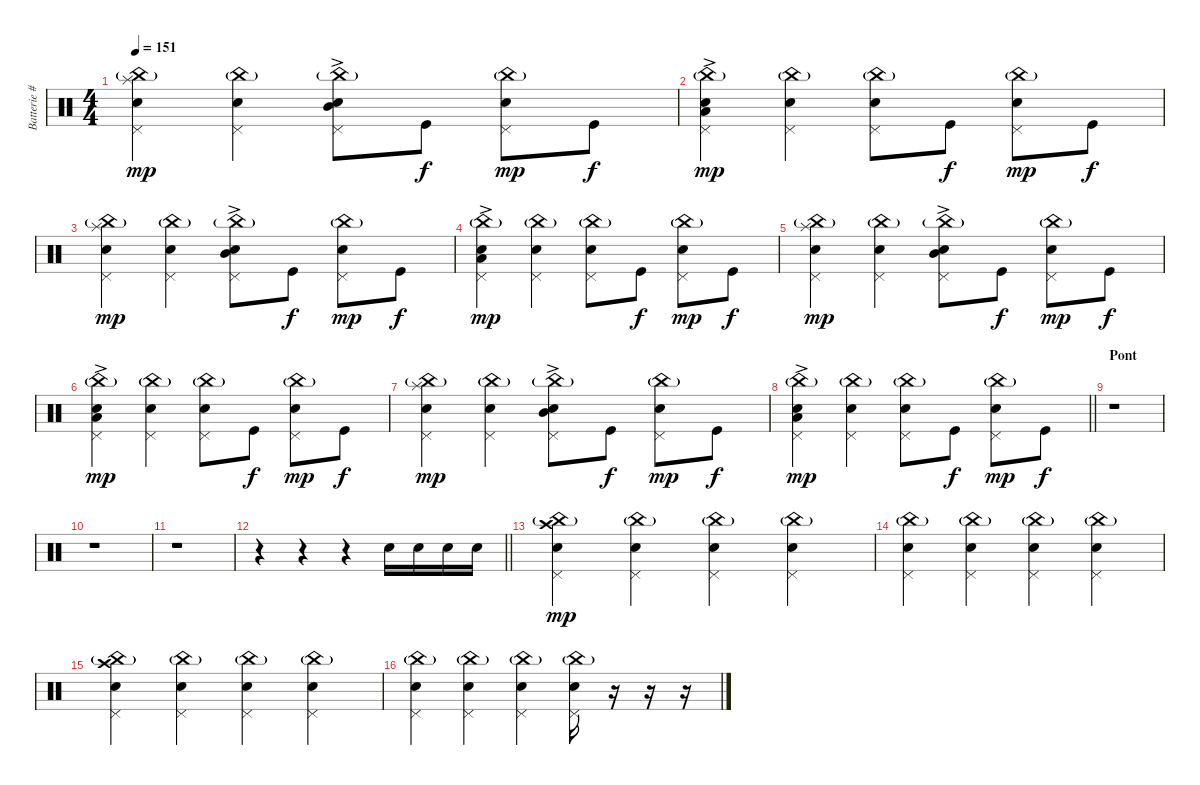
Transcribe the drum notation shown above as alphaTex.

\track ("Batterie # S.Hewitt" "Batterie #") {instrument percussion}
\staff {score}
\articulation defaults
\ts (4 4)
\tempo 151
\clef neutral
\ks c
("Splash (hit)" "China (hit)"{g} "Electric Snare (hit)" "Pedal Hi-Hat (hit)").4{dy mp} ("China (hit)"{g} "Electric Snare (hit)" "Pedal Hi-Hat (hit)").4 ("Mid Tom (hit)"{ac} "China (hit)"{g} "Electric Snare (hit)" "Pedal Hi-Hat (hit)").8 "Kick (hit)".8{dy f} ("China (hit)"{g} "Electric Snare (hit)" "Pedal Hi-Hat (hit)").8{dy mp} "Kick (hit)".8{dy f} |
("Low Tom (hit)"{ac} "China (hit)"{g} "Electric Snare (hit)" "Pedal Hi-Hat (hit)").4{dy mp} ("China (hit)"{g} "Electric Snare (hit)" "Pedal Hi-Hat (hit)").4 ("China (hit)"{g} "Electric Snare (hit)" "Pedal Hi-Hat (hit)").8 "Kick (hit)".8{dy f} ("China (hit)"{g} "Electric Snare (hit)" "Pedal Hi-Hat (hit)").8{dy mp} "Kick (hit)".8{dy f} |
("Splash (hit)" "China (hit)"{g} "Electric Snare (hit)" "Pedal Hi-Hat (hit)").4{dy mp} ("China (hit)"{g} "Electric Snare (hit)" "Pedal Hi-Hat (hit)").4 ("Mid Tom (hit)"{ac} "China (hit)"{g} "Electric Snare (hit)" "Pedal Hi-Hat (hit)").8 "Kick (hit)".8{dy f} ("China (hit)"{g} "Electric Snare (hit)" "Pedal Hi-Hat (hit)").8{dy mp} "Kick (hit)".8{dy f} |
("Low Tom (hit)"{ac} "China (hit)"{g} "Electric Snare (hit)" "Pedal Hi-Hat (hit)").4{dy mp} ("China (hit)"{g} "Electric Snare (hit)" "Pedal Hi-Hat (hit)").4 ("China (hit)"{g} "Electric Snare (hit)" "Pedal Hi-Hat (hit)").8 "Kick (hit)".8{dy f} ("China (hit)"{g} "Electric Snare (hit)" "Pedal Hi-Hat (hit)").8{dy mp} "Kick (hit)".8{dy f} |
("Splash (hit)" "China (hit)"{g} "Electric Snare (hit)" "Pedal Hi-Hat (hit)").4{dy mp} ("China (hit)"{g} "Electric Snare (hit)" "Pedal Hi-Hat (hit)").4 ("Mid Tom (hit)"{ac} "China (hit)"{g} "Electric Snare (hit)" "Pedal Hi-Hat (hit)").8 "Kick (hit)".8{dy f} ("China (hit)"{g} "Electric Snare (hit)" "Pedal Hi-Hat (hit)").8{dy mp} "Kick (hit)".8{dy f} |
("Low Tom (hit)"{ac} "China (hit)"{g} "Electric Snare (hit)" "Pedal Hi-Hat (hit)").4{dy mp} ("China (hit)"{g} "Electric Snare (hit)" "Pedal Hi-Hat (hit)").4 ("China (hit)"{g} "Electric Snare (hit)" "Pedal Hi-Hat (hit)").8 "Kick (hit)".8{dy f} ("China (hit)"{g} "Electric Snare (hit)" "Pedal Hi-Hat (hit)").8{dy mp} "Kick (hit)".8{dy f} |
("Splash (hit)" "China (hit)"{g} "Electric Snare (hit)" "Pedal Hi-Hat (hit)").4{dy mp} ("China (hit)"{g} "Electric Snare (hit)" "Pedal Hi-Hat (hit)").4 ("Mid Tom (hit)"{ac} "China (hit)"{g} "Electric Snare (hit)" "Pedal Hi-Hat (hit)").8 "Kick (hit)".8{dy f} ("China (hit)"{g} "Electric Snare (hit)" "Pedal Hi-Hat (hit)").8{dy mp} "Kick (hit)".8{dy f} |
\barLineRight lightlight
("Low Tom (hit)"{ac} "China (hit)"{g} "Electric Snare (hit)" "Pedal Hi-Hat (hit)").4{dy mp} ("China (hit)"{g} "Electric Snare (hit)" "Pedal Hi-Hat (hit)").4 ("China (hit)"{g} "Electric Snare (hit)" "Pedal Hi-Hat (hit)").8 "Kick (hit)".8{dy f} ("China (hit)"{g} "Electric Snare (hit)" "Pedal Hi-Hat (hit)").8{dy mp} "Kick (hit)".8{dy f} |
\section ("" "Pont")
r.1 |
r.1 |
r.1 |
\barLineRight lightlight
r.4 r.4 r.4 "Electric Snare (hit)".16 "Electric Snare (hit)".16 "Electric Snare (hit)".16 "Electric Snare (hit)".16 |
("Crash high (hit)" "China (hit)"{g} "Electric Snare (hit)" "Pedal Hi-Hat (hit)").4{dy mp} ("China (hit)"{g} "Electric Snare (hit)" "Pedal Hi-Hat (hit)").4 ("China (hit)"{g} "Electric Snare (hit)" "Pedal Hi-Hat (hit)").4 ("China (hit)"{g} "Electric Snare (hit)" "Pedal Hi-Hat (hit)").4 |
("China (hit)"{g} "Electric Snare (hit)" "Pedal Hi-Hat (hit)").4 ("China (hit)"{g} "Electric Snare (hit)" "Pedal Hi-Hat (hit)").4 ("China (hit)"{g} "Electric Snare (hit)" "Pedal Hi-Hat (hit)").4 ("China (hit)"{g} "Electric Snare (hit)" "Pedal Hi-Hat (hit)").4 |
("Crash high (hit)" "China (hit)"{g} "Electric Snare (hit)" "Pedal Hi-Hat (hit)").4 ("China (hit)"{g} "Electric Snare (hit)" "Pedal Hi-Hat (hit)").4 ("China (hit)"{g} "Electric Snare (hit)" "Pedal Hi-Hat (hit)").4 ("China (hit)"{g} "Electric Snare (hit)" "Pedal Hi-Hat (hit)").4 |
("China (hit)"{g} "Electric Snare (hit)" "Pedal Hi-Hat (hit)").4 ("China (hit)"{g} "Electric Snare (hit)" "Pedal Hi-Hat (hit)").4 ("China (hit)"{g} "Electric Snare (hit)" "Pedal Hi-Hat (hit)").4 ("China (hit)"{g} "Electric Snare (hit)" "Pedal Hi-Hat (hit)").16 r.16 r.16 r.16
